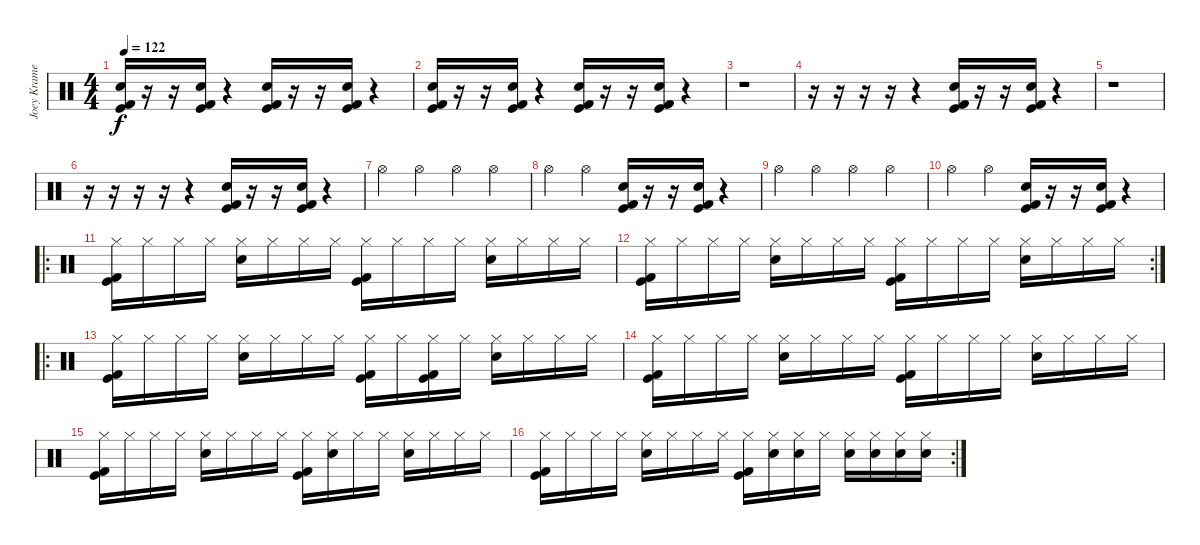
\track ("Joey Kramer" "Joey Krame") {instrument percussion}
\staff {score}
\articulation defaults
\ts (4 4)
\tempo 122
\clef neutral
\ks c
("Kick (hit)" "Snare (hit) 2" "Kick (hit) 2").16{dy f} r.16 r.16 ("Kick (hit)" "Snare (hit) 2" "Kick (hit) 2").16 r.4 ("Kick (hit)" "Snare (hit) 2" "Kick (hit) 2").16 r.16 r.16 ("Kick (hit)" "Snare (hit) 2" "Kick (hit) 2").16 r.4 |
("Kick (hit)" "Snare (hit) 2" "Kick (hit) 2").16 r.16 r.16 ("Kick (hit)" "Snare (hit) 2" "Kick (hit) 2").16 r.4 ("Kick (hit)" "Snare (hit) 2" "Kick (hit) 2").16 r.16 r.16 ("Kick (hit)" "Snare (hit) 2" "Kick (hit) 2").16 r.4 |
r.1 |
r.16 r.16 r.16 r.16 r.4 ("Kick (hit)" "Snare (hit) 2" "Kick (hit) 2").16 r.16 r.16 ("Kick (hit)" "Snare (hit) 2" "Kick (hit) 2").16 r.4 |
r.1 |
r.16 r.16 r.16 r.16 r.4 ("Kick (hit)" "Snare (hit) 2" "Kick (hit) 2").16 r.16 r.16 ("Kick (hit)" "Snare (hit) 2" "Kick (hit) 2").16 r.4 |
"Hi-Hat (open)".4 "Hi-Hat (open)".4 "Hi-Hat (open)".4 "Hi-Hat (open)".4 |
"Hi-Hat (open)".4 "Hi-Hat (open)".4 ("Kick (hit)" "Snare (hit) 2" "Kick (hit) 2").16 r.16 r.16 ("Kick (hit)" "Snare (hit) 2" "Kick (hit) 2").16 r.4 |
"Hi-Hat (open)".4 "Hi-Hat (open)".4 "Hi-Hat (open)".4 "Hi-Hat (open)".4 |
"Hi-Hat (open)".4 "Hi-Hat (open)".4 ("Kick (hit)" "Snare (hit) 2" "Kick (hit) 2").16 r.16 r.16 ("Kick (hit)" "Snare (hit) 2" "Kick (hit) 2").16 r.4 |
\ro
("Hi-Hat (closed)" "Kick (hit)" "Kick (hit) 2").16 "Hi-Hat (closed)".16 "Hi-Hat (closed)".16 "Hi-Hat (closed)".16 ("Hi-Hat (closed)" "Snare (hit) 2").16 "Hi-Hat (closed)".16 "Hi-Hat (closed)".16 "Hi-Hat (closed)".16 ("Hi-Hat (closed)" "Kick (hit)" "Kick (hit) 2").16 "Hi-Hat (closed)".16 "Hi-Hat (closed)".16 "Hi-Hat (closed)".16 ("Hi-Hat (closed)" "Snare (hit) 2").16 "Hi-Hat (closed)".16 "Hi-Hat (closed)".16 "Hi-Hat (closed)".16 |
\rc 2
("Hi-Hat (closed)" "Kick (hit)" "Kick (hit) 2").16 "Hi-Hat (closed)".16 "Hi-Hat (closed)".16 "Hi-Hat (closed)".16 ("Hi-Hat (closed)" "Snare (hit) 2").16 "Hi-Hat (closed)".16 "Hi-Hat (closed)".16 "Hi-Hat (closed)".16 ("Hi-Hat (closed)" "Kick (hit)" "Kick (hit) 2").16 "Hi-Hat (closed)".16 "Hi-Hat (closed)".16 "Hi-Hat (closed)".16 ("Hi-Hat (closed)" "Snare (hit) 2").16 "Hi-Hat (closed)".16 "Hi-Hat (closed)".16 "Hi-Hat (closed)".16 |
\ro
("Hi-Hat (closed)" "Kick (hit)" "Kick (hit) 2").16 "Hi-Hat (closed)".16 "Hi-Hat (closed)".16 "Hi-Hat (closed)".16 ("Hi-Hat (closed)" "Snare (hit) 2").16 "Hi-Hat (closed)".16 "Hi-Hat (closed)".16 "Hi-Hat (closed)".16 ("Hi-Hat (closed)" "Kick (hit)" "Kick (hit) 2").16 "Hi-Hat (closed)".16 ("Hi-Hat (closed)" "Kick (hit)" "Kick (hit) 2").16 "Hi-Hat (closed)".16 ("Hi-Hat (closed)" "Snare (hit) 2").16 "Hi-Hat (closed)".16 "Hi-Hat (closed)".16 "Hi-Hat (closed)".16 |
("Hi-Hat (closed)" "Kick (hit)" "Kick (hit) 2").16 "Hi-Hat (closed)".16 "Hi-Hat (closed)".16 "Hi-Hat (closed)".16 ("Hi-Hat (closed)" "Snare (hit) 2").16 "Hi-Hat (closed)".16 "Hi-Hat (closed)".16 "Hi-Hat (closed)".16 ("Hi-Hat (closed)" "Kick (hit)" "Kick (hit) 2").16 "Hi-Hat (closed)".16 "Hi-Hat (closed)".16 "Hi-Hat (closed)".16 ("Hi-Hat (closed)" "Snare (hit) 2").16 "Hi-Hat (closed)".16 "Hi-Hat (closed)".16 "Hi-Hat (closed)".16 |
("Hi-Hat (closed)" "Kick (hit)" "Kick (hit) 2").16 "Hi-Hat (closed)".16 "Hi-Hat (closed)".16 "Hi-Hat (closed)".16 ("Hi-Hat (closed)" "Snare (hit) 2").16 "Hi-Hat (closed)".16 "Hi-Hat (closed)".16 "Hi-Hat (closed)".16 ("Hi-Hat (closed)" "Kick (hit)" "Kick (hit) 2").16 ("Hi-Hat (closed)" "Snare (hit) 2").16 "Hi-Hat (closed)".16 "Hi-Hat (closed)".16 ("Hi-Hat (closed)" "Snare (hit) 2").16 "Hi-Hat (closed)".16 "Hi-Hat (closed)".16 "Hi-Hat (closed)".16 |
\rc 2
("Hi-Hat (closed)" "Kick (hit)" "Kick (hit) 2").16 "Hi-Hat (closed)".16 "Hi-Hat (closed)".16 "Hi-Hat (closed)".16 ("Hi-Hat (closed)" "Snare (hit) 2").16 "Hi-Hat (closed)".16 "Hi-Hat (closed)".16 "Hi-Hat (closed)".16 ("Hi-Hat (closed)" "Kick (hit)" "Kick (hit) 2").16 ("Hi-Hat (closed)" "Snare (hit) 2").16 ("Hi-Hat (closed)" "Snare (hit) 2").16 "Hi-Hat (closed)".16 ("Hi-Hat (closed)" "Snare (hit) 2").16 ("Hi-Hat (closed)" "Snare (hit) 2").16 ("Hi-Hat (closed)" "Snare (hit) 2").16 ("Hi-Hat (closed)" "Snare (hit) 2").16
